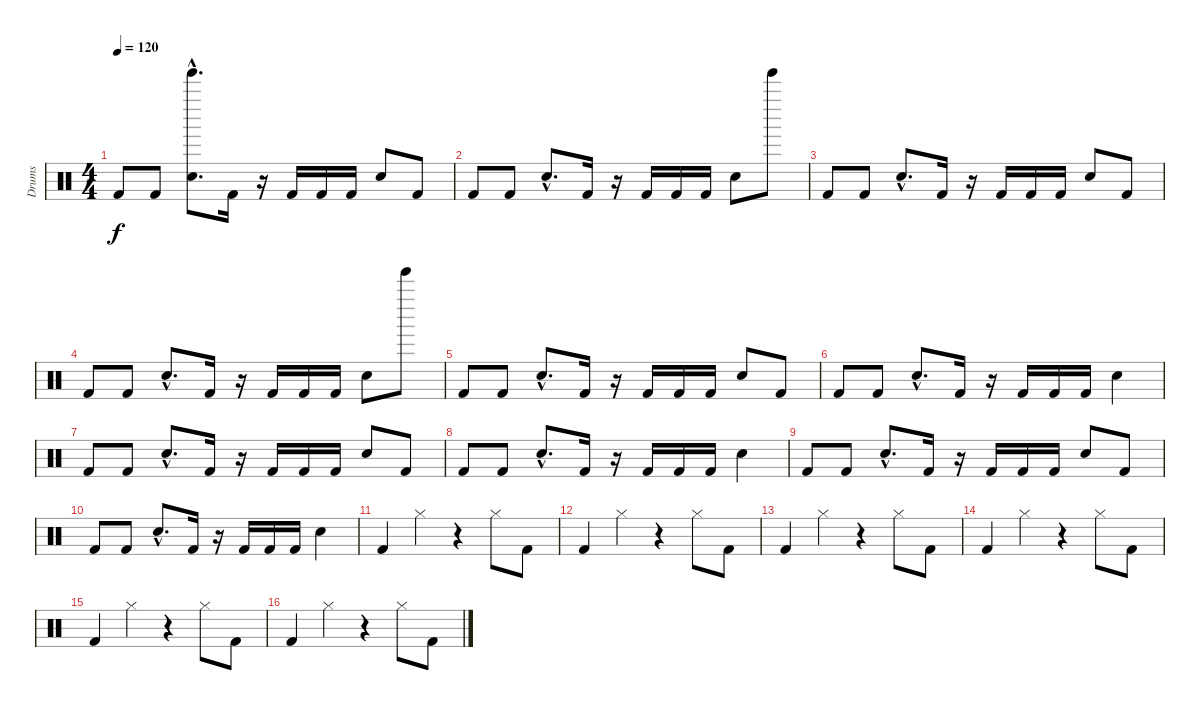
\track ("Drums" "Drums") {instrument percussion}
\staff {score}
\articulation defaults
\ts (4 4)
\tempo 120
\clef neutral
\ks c "Kick (hit) 2".8{dy f} "Kick (hit) 2".8
("Tinkle Bell (hit)"{hac} "Snare (hit) 2"{hac}).8{d} "Kick (hit) 2".16 r.16 "Kick (hit) 2".16 "Kick (hit) 2".16 "Kick (hit) 2".16 "Snare (hit) 2".8 "Kick (hit) 2".8 |
"Kick (hit) 2".8 "Kick (hit) 2".8 "Snare (hit) 2"{hac}.8{d} "Kick (hit) 2".16 r.16 "Kick (hit) 2".16 "Kick (hit) 2".16 "Kick (hit) 2".16 "Snare (hit) 2".8 "Tinkle Bell (hit)".8 |
"Kick (hit) 2".8 "Kick (hit) 2".8 "Snare (hit) 2"{hac}.8{d} "Kick (hit) 2".16 r.16 "Kick (hit) 2".16 "Kick (hit) 2".16 "Kick (hit) 2".16 "Snare (hit) 2".8 "Kick (hit) 2".8 |
"Kick (hit) 2".8 "Kick (hit) 2".8 "Snare (hit) 2"{hac}.8{d} "Kick (hit) 2".16 r.16 "Kick (hit) 2".16 "Kick (hit) 2".16 "Kick (hit) 2".16 "Snare (hit) 2".8 "Tinkle Bell (hit)".8 |
"Kick (hit) 2".8 "Kick (hit) 2".8 "Snare (hit) 2"{hac}.8{d} "Kick (hit) 2".16 r.16 "Kick (hit) 2".16 "Kick (hit) 2".16 "Kick (hit) 2".16 "Snare (hit) 2".8 "Kick (hit) 2".8 |
"Kick (hit) 2".8 "Kick (hit) 2".8 "Snare (hit) 2"{hac}.8{d} "Kick (hit) 2".16 r.16 "Kick (hit) 2".16 "Kick (hit) 2".16 "Kick (hit) 2".16 "Snare (hit) 2".4 |
"Kick (hit) 2".8 "Kick (hit) 2".8 "Snare (hit) 2"{hac}.8{d} "Kick (hit) 2".16 r.16 "Kick (hit) 2".16 "Kick (hit) 2".16 "Kick (hit) 2".16 "Snare (hit) 2".8 "Kick (hit) 2".8 |
"Kick (hit) 2".8 "Kick (hit) 2".8 "Snare (hit) 2"{hac}.8{d} "Kick (hit) 2".16 r.16 "Kick (hit) 2".16 "Kick (hit) 2".16 "Kick (hit) 2".16 "Snare (hit) 2".4 |
"Kick (hit) 2".8 "Kick (hit) 2".8 "Snare (hit) 2"{hac}.8{d} "Kick (hit) 2".16 r.16 "Kick (hit) 2".16 "Kick (hit) 2".16 "Kick (hit) 2".16 "Snare (hit) 2".8 "Kick (hit) 2".8 |
"Kick (hit) 2".8 "Kick (hit) 2".8 "Snare (hit) 2"{hac}.8{d} "Kick (hit) 2".16 r.16 "Kick (hit) 2".16 "Kick (hit) 2".16 "Kick (hit) 2".16 "Snare (hit) 2".4 |
"Kick (hit) 2".4 "Hi-Hat (closed)".4 r.4 "Hi-Hat (closed)".8 "Kick (hit) 2".8 |
"Kick (hit) 2".4 "Hi-Hat (closed)".4 r.4 "Hi-Hat (closed)".8 "Kick (hit) 2".8 |
"Kick (hit) 2".4 "Hi-Hat (closed)".4 r.4 "Hi-Hat (closed)".8 "Kick (hit) 2".8 |
"Kick (hit) 2".4 "Hi-Hat (closed)".4 r.4 "Hi-Hat (closed)".8 "Kick (hit) 2".8 |
"Kick (hit) 2".4 "Hi-Hat (closed)".4 r.4 "Hi-Hat (closed)".8 "Kick (hit) 2".8 |
"Kick (hit) 2".4 "Hi-Hat (closed)".4 r.4 "Hi-Hat (closed)".8 "Kick (hit) 2".8
